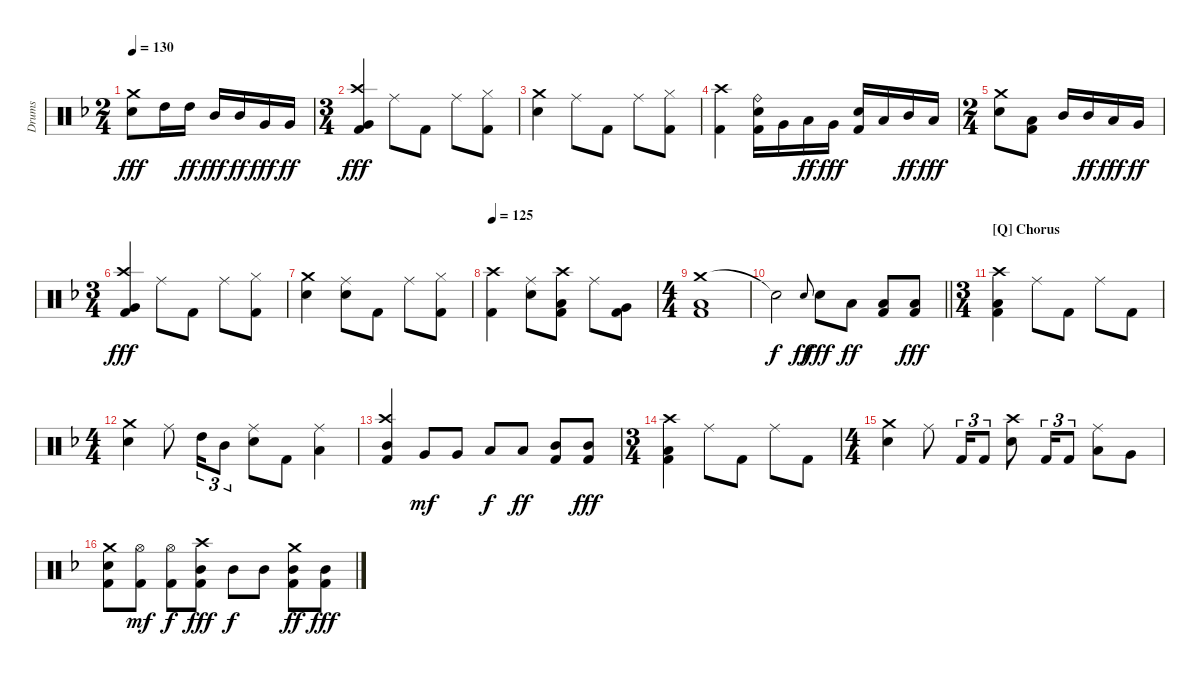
\track ("Drums" "Drums") {instrument percussion}
\staff {score}
\articulation defaults
\ts (2 4)
\tempo 130
\clef neutral
\ks dminor
("Crash medium (hit)" "Snare (hit) 2").8{dy fff} "High Tom (hit)".16 "High Tom (hit)".16{dy ff} "Mid Tom (hit)".16{dy fff} "Mid Tom (hit)".16{dy ff} "Very Low Tom (hit)".16{dy fff} "Very Low Tom (hit)".16{dy ff} |
\ts (3 4)
("Crash high (hit)" "Very Low Tom (hit)" "Kick (hit) 2").4{dy fff} "Ride (middle)".8 "Kick (hit) 2".8 "Ride (middle)".8 ("Hi-Hat (closed)" "Kick (hit) 2").8 |
("Crash medium (hit)" "Snare (hit) 2").4 "Ride (middle)".8 "Kick (hit) 2".8 "Ride (middle)".8 ("Hi-Hat (closed)" "Kick (hit) 2").8 |
("Crash high (hit)" "Kick (hit) 2").4 ("Ride (bell)" "Snare (hit) 2" "Kick (hit) 2").16 "Very Low Tom (hit)".16 "Low Tom (hit)".16{dy ff} "Very Low Tom (hit)".16{dy fff} ("Snare (hit) 2" "Kick (hit) 2").16 "Low Tom (hit)".16 "Mid Tom (hit)".16{dy ff} "Low Tom (hit)".16{dy fff} |
\ts (2 4)
("Crash medium (hit)" "Snare (hit) 2").8 ("Low Tom (hit)" "Kick (hit) 2").8 "Mid Tom (hit)".16 "Mid Tom (hit)".16{dy ff} "Low Tom (hit)".16{dy fff} "Very Low Tom (hit)".16{dy ff} |
\ts (3 4)
("Crash high (hit)" "Very Low Tom (hit)" "Kick (hit) 2").4{dy fff} "Ride (middle)".8 "Kick (hit) 2".8 "Ride (middle)".8 ("Hi-Hat (closed)" "Kick (hit) 2").8 |
("Crash medium (hit)" "Snare (hit) 2").4 ("Ride (middle)" "Snare (hit) 2").8 "Kick (hit) 2".8 "Ride (middle)".8 ("Hi-Hat (closed)" "Kick (hit) 2").8 |
\tempo 125
("Crash high (hit)" "Kick (hit) 2").4 ("Ride (middle)" "Snare (hit) 2").8 ("Crash high (hit)" "Low Tom (hit)" "Kick (hit) 2").8 "Ride (middle)".8 ("Very Low Tom (hit)" "Kick (hit) 2").8 |
\ts (4 4)
("Crash medium (hit)" "Low Floor Tom (hit)" "Kick (hit) 2").1 |
\barLineRight lightlight "Snare (hit)"{t}.2{dy f} "Snare (hit) 2".8{gr onbeat dy ff} "Snare (hit) 2".8{dy fff} "Low Floor Tom (hit)".8{dy ff}
("Low Floor Tom (hit)" "Kick (hit) 2").8 ("Low Floor Tom (hit)" "Kick (hit) 2").8{dy fff} |
\ts (3 4)
\section ("" "[Q] Chorus")
("Crash high (hit)" "Low Tom (hit)" "Kick (hit) 2").4 "Ride (middle)".8 "Kick (hit) 2".8 "Ride (middle)".8 "Kick (hit) 2".8 |
\ts (4 4)
("Crash medium (hit)" "Snare (hit) 2").4 "Ride (middle)".8 "High Tom (hit)".16{tu (3 2)} "Mid Tom (hit)".8{tu (3 2)} ("Ride (middle)" "Snare (hit) 2").8 "Kick (hit) 2".8 ("Ride (middle)" "Low Tom (hit)").4 |
("Crash high (hit)" "Mid Tom (hit)" "Kick (hit) 2").4 "Very Low Tom (hit)".8{dy mf} "Very Low Tom (hit)".8 "Low Tom (hit)".8{dy f} "Low Tom (hit)".8{dy ff} ("Mid Tom (hit)" "Kick (hit) 2").8 ("Mid Tom (hit)" "Kick (hit) 2").8{dy fff} |
\ts (3 4)
("Crash high (hit)" "Low Tom (hit)" "Kick (hit) 2").4 "Ride (middle)".8 "Kick (hit) 2".8 "Ride (middle)".8 "Kick (hit) 2".8 |
\ts (4 4)
("Crash medium (hit)" "Snare (hit) 2").4 "Ride (middle)".8 "Kick (hit) 2".16{tu (3 2)} "Kick (hit) 2".8{tu (3 2)} ("Crash high (hit)" "Snare (hit) 2").8 "Kick (hit) 2".16{tu (3 2)} "Kick (hit) 2".8{tu (3 2)} ("Ride (middle)" "Low Tom (hit)").8 "Very Low Tom (hit)".8 |
("Crash medium (hit)" "Snare (hit) 2" "Kick (hit) 2").8 ("Hi-Hat (open)" "Kick (hit) 2").8{dy mf} ("Hi-Hat (open)" "Kick (hit) 2").8{dy f} ("Crash high (hit)" "Mid Tom (hit)" "Kick (hit) 2").8{dy fff} "Mid Tom (hit)".8{dy f} "Mid Tom (hit)".8 ("Crash medium (hit)" "Mid Tom (hit)" "Kick (hit) 2").8{dy ff} ("Mid Tom (hit)" "Kick (hit) 2").8{dy fff}
